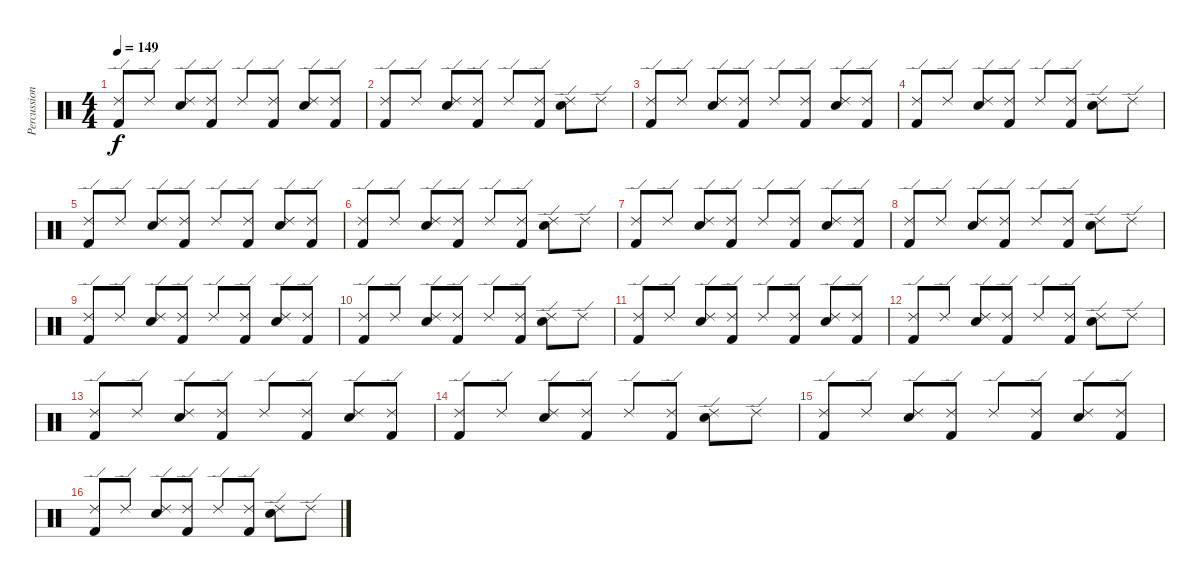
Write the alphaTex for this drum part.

\track ("Percussion" "Percussion") {instrument percussion}
\staff {score}
\articulation defaults
\ts (4 4)
\tempo 149
\clef neutral
\ks c
("Ride (edge) 2" "Kick (hit) 2").8{dy f} "Ride (edge) 2".8 ("Ride (edge) 2" "Electric Snare (hit)").8 ("Ride (edge) 2" "Kick (hit) 2").8 "Ride (edge) 2".8 ("Ride (edge) 2" "Kick (hit) 2").8 ("Ride (edge) 2" "Electric Snare (hit)").8 ("Ride (edge) 2" "Kick (hit) 2").8 |
("Ride (edge) 2" "Kick (hit) 2").8 "Ride (edge) 2".8 ("Ride (edge) 2" "Electric Snare (hit)").8 ("Ride (edge) 2" "Kick (hit) 2").8 "Ride (edge) 2".8 ("Ride (edge) 2" "Kick (hit) 2").8 ("Ride (edge) 2" "Electric Snare (hit)").8 "Ride (edge) 2".8 |
("Ride (edge) 2" "Kick (hit) 2").8 "Ride (edge) 2".8 ("Ride (edge) 2" "Electric Snare (hit)").8 ("Ride (edge) 2" "Kick (hit) 2").8 "Ride (edge) 2".8 ("Ride (edge) 2" "Kick (hit) 2").8 ("Ride (edge) 2" "Electric Snare (hit)").8 ("Ride (edge) 2" "Kick (hit) 2").8 |
("Ride (edge) 2" "Kick (hit) 2").8 "Ride (edge) 2".8 ("Ride (edge) 2" "Electric Snare (hit)").8 ("Ride (edge) 2" "Kick (hit) 2").8 "Ride (edge) 2".8 ("Ride (edge) 2" "Kick (hit) 2").8 ("Ride (edge) 2" "Electric Snare (hit)").8 "Ride (edge) 2".8 |
("Ride (edge) 2" "Kick (hit) 2").8 "Ride (edge) 2".8 ("Ride (edge) 2" "Electric Snare (hit)").8 ("Ride (edge) 2" "Kick (hit) 2").8 "Ride (edge) 2".8 ("Ride (edge) 2" "Kick (hit) 2").8 ("Ride (edge) 2" "Electric Snare (hit)").8 ("Ride (edge) 2" "Kick (hit) 2").8 |
("Ride (edge) 2" "Kick (hit) 2").8 "Ride (edge) 2".8 ("Ride (edge) 2" "Electric Snare (hit)").8 ("Ride (edge) 2" "Kick (hit) 2").8 "Ride (edge) 2".8 ("Ride (edge) 2" "Kick (hit) 2").8 ("Ride (edge) 2" "Electric Snare (hit)").8 "Ride (edge) 2".8 |
("Ride (edge) 2" "Kick (hit) 2").8 "Ride (edge) 2".8 ("Ride (edge) 2" "Electric Snare (hit)").8 ("Ride (edge) 2" "Kick (hit) 2").8 "Ride (edge) 2".8 ("Ride (edge) 2" "Kick (hit) 2").8 ("Ride (edge) 2" "Electric Snare (hit)").8 ("Ride (edge) 2" "Kick (hit) 2").8 |
("Ride (edge) 2" "Kick (hit) 2").8 "Ride (edge) 2".8 ("Ride (edge) 2" "Electric Snare (hit)").8 ("Ride (edge) 2" "Kick (hit) 2").8 "Ride (edge) 2".8 ("Ride (edge) 2" "Kick (hit) 2").8 ("Ride (edge) 2" "Electric Snare (hit)").8 "Ride (edge) 2".8 |
("Ride (edge) 2" "Kick (hit) 2").8 "Ride (edge) 2".8 ("Ride (edge) 2" "Electric Snare (hit)").8 ("Ride (edge) 2" "Kick (hit) 2").8 "Ride (edge) 2".8 ("Ride (edge) 2" "Kick (hit) 2").8 ("Ride (edge) 2" "Electric Snare (hit)").8 ("Ride (edge) 2" "Kick (hit) 2").8 |
("Ride (edge) 2" "Kick (hit) 2").8 "Ride (edge) 2".8 ("Ride (edge) 2" "Electric Snare (hit)").8 ("Ride (edge) 2" "Kick (hit) 2").8 "Ride (edge) 2".8 ("Ride (edge) 2" "Kick (hit) 2").8 ("Ride (edge) 2" "Electric Snare (hit)").8 "Ride (edge) 2".8 |
("Ride (edge) 2" "Kick (hit) 2").8 "Ride (edge) 2".8 ("Ride (edge) 2" "Electric Snare (hit)").8 ("Ride (edge) 2" "Kick (hit) 2").8 "Ride (edge) 2".8 ("Ride (edge) 2" "Kick (hit) 2").8 ("Ride (edge) 2" "Electric Snare (hit)").8 ("Ride (edge) 2" "Kick (hit) 2").8 |
("Ride (edge) 2" "Kick (hit) 2").8 "Ride (edge) 2".8 ("Ride (edge) 2" "Electric Snare (hit)").8 ("Ride (edge) 2" "Kick (hit) 2").8 "Ride (edge) 2".8 ("Ride (edge) 2" "Kick (hit) 2").8 ("Ride (edge) 2" "Electric Snare (hit)").8 "Ride (edge) 2".8 |
("Ride (edge) 2" "Kick (hit) 2").8 "Ride (edge) 2".8 ("Ride (edge) 2" "Electric Snare (hit)").8 ("Ride (edge) 2" "Kick (hit) 2").8 "Ride (edge) 2".8 ("Ride (edge) 2" "Kick (hit) 2").8 ("Ride (edge) 2" "Electric Snare (hit)").8 ("Ride (edge) 2" "Kick (hit) 2").8 |
("Ride (edge) 2" "Kick (hit) 2").8 "Ride (edge) 2".8 ("Ride (edge) 2" "Electric Snare (hit)").8 ("Ride (edge) 2" "Kick (hit) 2").8 "Ride (edge) 2".8 ("Ride (edge) 2" "Kick (hit) 2").8 ("Ride (edge) 2" "Electric Snare (hit)").8 "Ride (edge) 2".8 |
("Ride (edge) 2" "Kick (hit) 2").8 "Ride (edge) 2".8 ("Ride (edge) 2" "Electric Snare (hit)").8 ("Ride (edge) 2" "Kick (hit) 2").8 "Ride (edge) 2".8 ("Ride (edge) 2" "Kick (hit) 2").8 ("Ride (edge) 2" "Electric Snare (hit)").8 ("Ride (edge) 2" "Kick (hit) 2").8 |
("Ride (edge) 2" "Kick (hit) 2").8 "Ride (edge) 2".8 ("Ride (edge) 2" "Electric Snare (hit)").8 ("Ride (edge) 2" "Kick (hit) 2").8 "Ride (edge) 2".8 ("Ride (edge) 2" "Kick (hit) 2").8 ("Ride (edge) 2" "Electric Snare (hit)").8 "Ride (edge) 2".8
